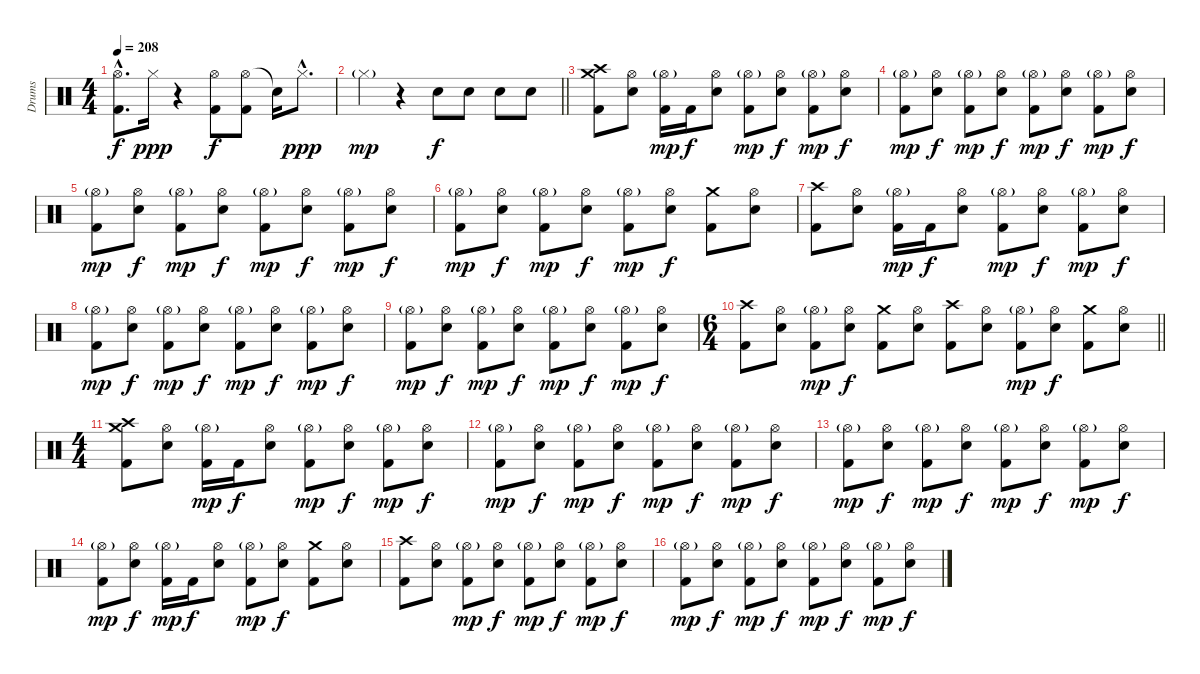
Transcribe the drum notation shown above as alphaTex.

\track ("Drums" "Drums") {instrument percussion}
\staff {score}
\articulation defaults
\ts (4 4)
\tempo 208
\clef neutral
\ks c
("Hi-Hat (open)"{hac} "Kick (hit) 2"{hac}).8{d dy f} "Hi-Hat (closed)".16{dy ppp} r.4 ("Hi-Hat (open)" "Kick (hit) 2").8{dy f} ("Hi-Hat (open)" "Kick (hit) 2").8 "Snare (hit)"{t}.16 "Hi-Hat (closed)"{hac}.8{d dy ppp} |
\barLineRight lightlight "Hi-Hat (closed)"{g}.4{dy mp}
r.4 "Electric Snare (hit)".8{dy f} "Electric Snare (hit)".8 "Electric Snare (hit)".8 "Electric Snare (hit)".8 |
("Crash high (hit)" "Crash medium (hit)" "Kick (hit) 2").8 ("Hi-Hat (open)" "Electric Snare (hit)").8 ("Hi-Hat (open)"{g} "Kick (hit) 2").16{dy mp} "Kick (hit) 2".16{dy f} ("Hi-Hat (open)" "Electric Snare (hit)").8 ("Hi-Hat (open)"{g} "Kick (hit) 2").8{dy mp} ("Hi-Hat (open)" "Electric Snare (hit)").8{dy f} ("Hi-Hat (open)"{g} "Kick (hit) 2").8{dy mp} ("Hi-Hat (open)" "Electric Snare (hit)").8{dy f} |
("Hi-Hat (open)"{g} "Kick (hit) 2").8{dy mp} ("Hi-Hat (open)" "Electric Snare (hit)").8{dy f} ("Hi-Hat (open)"{g} "Kick (hit) 2").8{dy mp} ("Hi-Hat (open)" "Electric Snare (hit)").8{dy f} ("Hi-Hat (open)"{g} "Kick (hit) 2").8{dy mp} ("Hi-Hat (open)" "Electric Snare (hit)").8{dy f} ("Hi-Hat (open)"{g} "Kick (hit) 2").8{dy mp} ("Hi-Hat (open)" "Electric Snare (hit)").8{dy f} |
("Hi-Hat (open)"{g} "Kick (hit) 2").8{dy mp} ("Hi-Hat (open)" "Electric Snare (hit)").8{dy f} ("Hi-Hat (open)"{g} "Kick (hit) 2").8{dy mp} ("Hi-Hat (open)" "Electric Snare (hit)").8{dy f} ("Hi-Hat (open)"{g} "Kick (hit) 2").8{dy mp} ("Hi-Hat (open)" "Electric Snare (hit)").8{dy f} ("Hi-Hat (open)"{g} "Kick (hit) 2").8{dy mp} ("Hi-Hat (open)" "Electric Snare (hit)").8{dy f} |
("Hi-Hat (open)"{g} "Kick (hit) 2").8{dy mp} ("Hi-Hat (open)" "Electric Snare (hit)").8{dy f} ("Hi-Hat (open)"{g} "Kick (hit) 2").8{dy mp} ("Hi-Hat (open)" "Electric Snare (hit)").8{dy f} ("Hi-Hat (open)"{g} "Kick (hit) 2").8{dy mp} ("Hi-Hat (open)" "Electric Snare (hit)").8{dy f} ("Crash medium (hit)" "Kick (hit) 2").8 ("Hi-Hat (open)" "Electric Snare (hit)").8 |
("Crash high (hit)" "Kick (hit) 2").8 ("Hi-Hat (open)" "Electric Snare (hit)").8 ("Hi-Hat (open)"{g} "Kick (hit) 2").16{dy mp} "Kick (hit) 2".16{dy f} ("Hi-Hat (open)" "Electric Snare (hit)").8 ("Hi-Hat (open)"{g} "Kick (hit) 2").8{dy mp} ("Hi-Hat (open)" "Electric Snare (hit)").8{dy f} ("Hi-Hat (open)"{g} "Kick (hit) 2").8{dy mp} ("Hi-Hat (open)" "Electric Snare (hit)").8{dy f} |
("Hi-Hat (open)"{g} "Kick (hit) 2").8{dy mp} ("Hi-Hat (open)" "Electric Snare (hit)").8{dy f} ("Hi-Hat (open)"{g} "Kick (hit) 2").8{dy mp} ("Hi-Hat (open)" "Electric Snare (hit)").8{dy f} ("Hi-Hat (open)"{g} "Kick (hit) 2").8{dy mp} ("Hi-Hat (open)" "Electric Snare (hit)").8{dy f} ("Hi-Hat (open)"{g} "Kick (hit) 2").8{dy mp} ("Hi-Hat (open)" "Electric Snare (hit)").8{dy f} |
("Hi-Hat (open)"{g} "Kick (hit) 2").8{dy mp} ("Hi-Hat (open)" "Electric Snare (hit)").8{dy f} ("Hi-Hat (open)"{g} "Kick (hit) 2").8{dy mp} ("Hi-Hat (open)" "Electric Snare (hit)").8{dy f} ("Hi-Hat (open)"{g} "Kick (hit) 2").8{dy mp} ("Hi-Hat (open)" "Electric Snare (hit)").8{dy f} ("Hi-Hat (open)"{g} "Kick (hit) 2").8{dy mp} ("Hi-Hat (open)" "Electric Snare (hit)").8{dy f} |
\ts (6 4)
\barLineRight lightlight
("Crash high (hit)" "Kick (hit) 2").8 ("Hi-Hat (open)" "Electric Snare (hit)").8 ("Hi-Hat (open)"{g} "Kick (hit) 2").8{dy mp} ("Hi-Hat (open)" "Electric Snare (hit)").8{dy f} ("Crash medium (hit)" "Kick (hit) 2").8 ("Hi-Hat (open)" "Electric Snare (hit)").8 ("Crash high (hit)" "Kick (hit) 2").8 ("Hi-Hat (open)" "Electric Snare (hit)").8 ("Hi-Hat (open)"{g} "Kick (hit) 2").8{dy mp} ("Hi-Hat (open)" "Electric Snare (hit)").8{dy f} ("Crash medium (hit)" "Kick (hit) 2").8 ("Hi-Hat (open)" "Electric Snare (hit)").8 |
\ts (4 4)
("Crash high (hit)" "Crash medium (hit)" "Kick (hit) 2").8 ("Hi-Hat (open)" "Electric Snare (hit)").8 ("Hi-Hat (open)"{g} "Kick (hit) 2").16{dy mp} "Kick (hit) 2".16{dy f} ("Hi-Hat (open)" "Electric Snare (hit)").8 ("Hi-Hat (open)"{g} "Kick (hit) 2").8{dy mp} ("Hi-Hat (open)" "Electric Snare (hit)").8{dy f} ("Hi-Hat (open)"{g} "Kick (hit) 2").8{dy mp} ("Hi-Hat (open)" "Electric Snare (hit)").8{dy f} |
("Hi-Hat (open)"{g} "Kick (hit) 2").8{dy mp} ("Hi-Hat (open)" "Electric Snare (hit)").8{dy f} ("Hi-Hat (open)"{g} "Kick (hit) 2").8{dy mp} ("Hi-Hat (open)" "Electric Snare (hit)").8{dy f} ("Hi-Hat (open)"{g} "Kick (hit) 2").8{dy mp} ("Hi-Hat (open)" "Electric Snare (hit)").8{dy f} ("Hi-Hat (open)"{g} "Kick (hit) 2").8{dy mp} ("Hi-Hat (open)" "Electric Snare (hit)").8{dy f} |
("Hi-Hat (open)"{g} "Kick (hit) 2").8{dy mp} ("Hi-Hat (open)" "Electric Snare (hit)").8{dy f} ("Hi-Hat (open)"{g} "Kick (hit) 2").8{dy mp} ("Hi-Hat (open)" "Electric Snare (hit)").8{dy f} ("Hi-Hat (open)"{g} "Kick (hit) 2").8{dy mp} ("Hi-Hat (open)" "Electric Snare (hit)").8{dy f} ("Hi-Hat (open)"{g} "Kick (hit) 2").8{dy mp} ("Hi-Hat (open)" "Electric Snare (hit)").8{dy f} |
("Hi-Hat (open)"{g} "Kick (hit) 2").8{dy mp} ("Hi-Hat (open)" "Electric Snare (hit)").8{dy f} ("Hi-Hat (open)"{g} "Kick (hit) 2").16{dy mp} "Kick (hit) 2".16{dy f} ("Hi-Hat (open)" "Electric Snare (hit)").8 ("Hi-Hat (open)"{g} "Kick (hit) 2").8{dy mp} ("Hi-Hat (open)" "Electric Snare (hit)").8{dy f} ("Crash medium (hit)" "Kick (hit) 2").8 ("Hi-Hat (open)" "Electric Snare (hit)").8 |
("Crash high (hit)" "Kick (hit) 2").8 ("Hi-Hat (open)" "Electric Snare (hit)").8 ("Hi-Hat (open)"{g} "Kick (hit) 2").8{dy mp} ("Hi-Hat (open)" "Electric Snare (hit)").8{dy f} ("Hi-Hat (open)"{g} "Kick (hit) 2").8{dy mp} ("Hi-Hat (open)" "Electric Snare (hit)").8{dy f} ("Hi-Hat (open)"{g} "Kick (hit) 2").8{dy mp} ("Hi-Hat (open)" "Electric Snare (hit)").8{dy f} |
("Hi-Hat (open)"{g} "Kick (hit) 2").8{dy mp} ("Hi-Hat (open)" "Electric Snare (hit)").8{dy f} ("Hi-Hat (open)"{g} "Kick (hit) 2").8{dy mp} ("Hi-Hat (open)" "Electric Snare (hit)").8{dy f} ("Hi-Hat (open)"{g} "Kick (hit) 2").8{dy mp} ("Hi-Hat (open)" "Electric Snare (hit)").8{dy f} ("Hi-Hat (open)"{g} "Kick (hit) 2").8{dy mp} ("Hi-Hat (open)" "Electric Snare (hit)").8{dy f}
